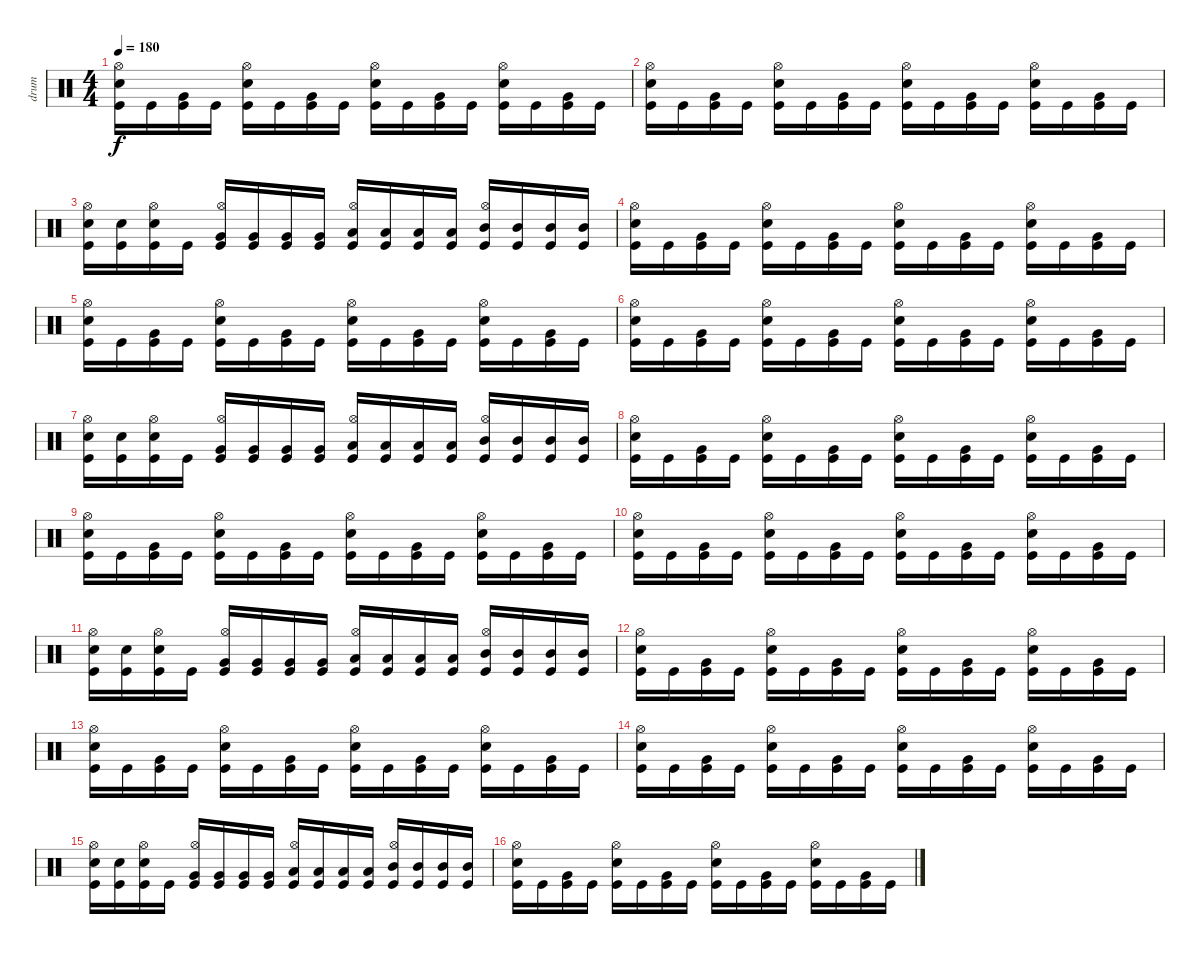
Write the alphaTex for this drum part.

\track ("drum" "drum") {instrument percussion}
\staff {score}
\articulation defaults
\ts (4 4)
\tempo 180
\clef neutral
\ks c
("Kick (hit)" "Snare (hit) 2" "Hi-Hat (open)").16{dy f} "Kick (hit)".16 ("Kick (hit)" "Very Low Tom (hit)").16 "Kick (hit)".16 ("Kick (hit)" "Snare (hit) 2" "Hi-Hat (open)").16 "Kick (hit)".16 ("Kick (hit)" "Very Low Tom (hit)").16 "Kick (hit)".16 ("Kick (hit)" "Snare (hit) 2" "Hi-Hat (open)").16 "Kick (hit)".16 ("Kick (hit)" "Very Low Tom (hit)").16 "Kick (hit)".16 ("Kick (hit)" "Snare (hit) 2" "Hi-Hat (open)").16 "Kick (hit)".16 ("Kick (hit)" "Very Low Tom (hit)").16 "Kick (hit)".16 |
("Kick (hit)" "Snare (hit) 2" "Hi-Hat (open)").16 "Kick (hit)".16 ("Kick (hit)" "Very Low Tom (hit)").16 "Kick (hit)".16 ("Kick (hit)" "Snare (hit) 2" "Hi-Hat (open)").16 "Kick (hit)".16 ("Kick (hit)" "Very Low Tom (hit)").16 "Kick (hit)".16 ("Kick (hit)" "Snare (hit) 2" "Hi-Hat (open)").16 "Kick (hit)".16 ("Kick (hit)" "Very Low Tom (hit)").16 "Kick (hit)".16 ("Kick (hit)" "Snare (hit) 2" "Hi-Hat (open)").16 "Kick (hit)".16 ("Kick (hit)" "Very Low Tom (hit)").16 "Kick (hit)".16 |
("Kick (hit)" "Snare (hit) 2" "Hi-Hat (open)").16 ("Kick (hit)" "Snare (hit) 2").16 ("Kick (hit)" "Snare (hit) 2" "Hi-Hat (open)").16 "Kick (hit)".16 ("Kick (hit)" "Very Low Tom (hit)" "Hi-Hat (open)").16 ("Kick (hit)" "Very Low Tom (hit)").16 ("Kick (hit)" "Very Low Tom (hit)").16 ("Kick (hit)" "Very Low Tom (hit)").16 ("Kick (hit)" "Low Tom (hit)" "Hi-Hat (open)").16 ("Kick (hit)" "Low Tom (hit)").16 ("Kick (hit)" "Low Tom (hit)").16 ("Kick (hit)" "Low Tom (hit)").16 ("Kick (hit)" "Mid Tom (hit)" "Hi-Hat (open)").16 ("Kick (hit)" "Mid Tom (hit)").16 ("Kick (hit)" "Mid Tom (hit)").16 ("Kick (hit)" "Mid Tom (hit)").16 |
("Kick (hit)" "Snare (hit) 2" "Hi-Hat (open)").16 "Kick (hit)".16 ("Kick (hit)" "Very Low Tom (hit)").16 "Kick (hit)".16 ("Kick (hit)" "Snare (hit) 2" "Hi-Hat (open)").16 "Kick (hit)".16 ("Kick (hit)" "Very Low Tom (hit)").16 "Kick (hit)".16 ("Kick (hit)" "Snare (hit) 2" "Hi-Hat (open)").16 "Kick (hit)".16 ("Kick (hit)" "Very Low Tom (hit)").16 "Kick (hit)".16 ("Kick (hit)" "Snare (hit) 2" "Hi-Hat (open)").16 "Kick (hit)".16 ("Kick (hit)" "Very Low Tom (hit)").16 "Kick (hit)".16 |
("Kick (hit)" "Snare (hit) 2" "Hi-Hat (open)").16 "Kick (hit)".16 ("Kick (hit)" "Very Low Tom (hit)").16 "Kick (hit)".16 ("Kick (hit)" "Snare (hit) 2" "Hi-Hat (open)").16 "Kick (hit)".16 ("Kick (hit)" "Very Low Tom (hit)").16 "Kick (hit)".16 ("Kick (hit)" "Snare (hit) 2" "Hi-Hat (open)").16 "Kick (hit)".16 ("Kick (hit)" "Very Low Tom (hit)").16 "Kick (hit)".16 ("Kick (hit)" "Snare (hit) 2" "Hi-Hat (open)").16 "Kick (hit)".16 ("Kick (hit)" "Very Low Tom (hit)").16 "Kick (hit)".16 |
("Kick (hit)" "Snare (hit) 2" "Hi-Hat (open)").16 "Kick (hit)".16 ("Kick (hit)" "Very Low Tom (hit)").16 "Kick (hit)".16 ("Kick (hit)" "Snare (hit) 2" "Hi-Hat (open)").16 "Kick (hit)".16 ("Kick (hit)" "Very Low Tom (hit)").16 "Kick (hit)".16 ("Kick (hit)" "Snare (hit) 2" "Hi-Hat (open)").16 "Kick (hit)".16 ("Kick (hit)" "Very Low Tom (hit)").16 "Kick (hit)".16 ("Kick (hit)" "Snare (hit) 2" "Hi-Hat (open)").16 "Kick (hit)".16 ("Kick (hit)" "Very Low Tom (hit)").16 "Kick (hit)".16 |
("Kick (hit)" "Snare (hit) 2" "Hi-Hat (open)").16 ("Kick (hit)" "Snare (hit) 2").16 ("Kick (hit)" "Snare (hit) 2" "Hi-Hat (open)").16 "Kick (hit)".16 ("Kick (hit)" "Very Low Tom (hit)" "Hi-Hat (open)").16 ("Kick (hit)" "Very Low Tom (hit)").16 ("Kick (hit)" "Very Low Tom (hit)").16 ("Kick (hit)" "Very Low Tom (hit)").16 ("Kick (hit)" "Low Tom (hit)" "Hi-Hat (open)").16 ("Kick (hit)" "Low Tom (hit)").16 ("Kick (hit)" "Low Tom (hit)").16 ("Kick (hit)" "Low Tom (hit)").16 ("Kick (hit)" "Mid Tom (hit)" "Hi-Hat (open)").16 ("Kick (hit)" "Mid Tom (hit)").16 ("Kick (hit)" "Mid Tom (hit)").16 ("Kick (hit)" "Mid Tom (hit)").16 |
("Kick (hit)" "Snare (hit) 2" "Hi-Hat (open)").16 "Kick (hit)".16 ("Kick (hit)" "Very Low Tom (hit)").16 "Kick (hit)".16 ("Kick (hit)" "Snare (hit) 2" "Hi-Hat (open)").16 "Kick (hit)".16 ("Kick (hit)" "Very Low Tom (hit)").16 "Kick (hit)".16 ("Kick (hit)" "Snare (hit) 2" "Hi-Hat (open)").16 "Kick (hit)".16 ("Kick (hit)" "Very Low Tom (hit)").16 "Kick (hit)".16 ("Kick (hit)" "Snare (hit) 2" "Hi-Hat (open)").16 "Kick (hit)".16 ("Kick (hit)" "Very Low Tom (hit)").16 "Kick (hit)".16 |
("Kick (hit)" "Snare (hit) 2" "Hi-Hat (open)").16 "Kick (hit)".16 ("Kick (hit)" "Very Low Tom (hit)").16 "Kick (hit)".16 ("Kick (hit)" "Snare (hit) 2" "Hi-Hat (open)").16 "Kick (hit)".16 ("Kick (hit)" "Very Low Tom (hit)").16 "Kick (hit)".16 ("Kick (hit)" "Snare (hit) 2" "Hi-Hat (open)").16 "Kick (hit)".16 ("Kick (hit)" "Very Low Tom (hit)").16 "Kick (hit)".16 ("Kick (hit)" "Snare (hit) 2" "Hi-Hat (open)").16 "Kick (hit)".16 ("Kick (hit)" "Very Low Tom (hit)").16 "Kick (hit)".16 |
("Kick (hit)" "Snare (hit) 2" "Hi-Hat (open)").16 "Kick (hit)".16 ("Kick (hit)" "Very Low Tom (hit)").16 "Kick (hit)".16 ("Kick (hit)" "Snare (hit) 2" "Hi-Hat (open)").16 "Kick (hit)".16 ("Kick (hit)" "Very Low Tom (hit)").16 "Kick (hit)".16 ("Kick (hit)" "Snare (hit) 2" "Hi-Hat (open)").16 "Kick (hit)".16 ("Kick (hit)" "Very Low Tom (hit)").16 "Kick (hit)".16 ("Kick (hit)" "Snare (hit) 2" "Hi-Hat (open)").16 "Kick (hit)".16 ("Kick (hit)" "Very Low Tom (hit)").16 "Kick (hit)".16 |
("Kick (hit)" "Snare (hit) 2" "Hi-Hat (open)").16 ("Kick (hit)" "Snare (hit) 2").16 ("Kick (hit)" "Snare (hit) 2" "Hi-Hat (open)").16 "Kick (hit)".16 ("Kick (hit)" "Very Low Tom (hit)" "Hi-Hat (open)").16 ("Kick (hit)" "Very Low Tom (hit)").16 ("Kick (hit)" "Very Low Tom (hit)").16 ("Kick (hit)" "Very Low Tom (hit)").16 ("Kick (hit)" "Low Tom (hit)" "Hi-Hat (open)").16 ("Kick (hit)" "Low Tom (hit)").16 ("Kick (hit)" "Low Tom (hit)").16 ("Kick (hit)" "Low Tom (hit)").16 ("Kick (hit)" "Mid Tom (hit)" "Hi-Hat (open)").16 ("Kick (hit)" "Mid Tom (hit)").16 ("Kick (hit)" "Mid Tom (hit)").16 ("Kick (hit)" "Mid Tom (hit)").16 |
("Kick (hit)" "Snare (hit) 2" "Hi-Hat (open)").16 "Kick (hit)".16 ("Kick (hit)" "Very Low Tom (hit)").16 "Kick (hit)".16 ("Kick (hit)" "Snare (hit) 2" "Hi-Hat (open)").16 "Kick (hit)".16 ("Kick (hit)" "Very Low Tom (hit)").16 "Kick (hit)".16 ("Kick (hit)" "Snare (hit) 2" "Hi-Hat (open)").16 "Kick (hit)".16 ("Kick (hit)" "Very Low Tom (hit)").16 "Kick (hit)".16 ("Kick (hit)" "Snare (hit) 2" "Hi-Hat (open)").16 "Kick (hit)".16 ("Kick (hit)" "Very Low Tom (hit)").16 "Kick (hit)".16 |
("Kick (hit)" "Snare (hit) 2" "Hi-Hat (open)").16 "Kick (hit)".16 ("Kick (hit)" "Very Low Tom (hit)").16 "Kick (hit)".16 ("Kick (hit)" "Snare (hit) 2" "Hi-Hat (open)").16 "Kick (hit)".16 ("Kick (hit)" "Very Low Tom (hit)").16 "Kick (hit)".16 ("Kick (hit)" "Snare (hit) 2" "Hi-Hat (open)").16 "Kick (hit)".16 ("Kick (hit)" "Very Low Tom (hit)").16 "Kick (hit)".16 ("Kick (hit)" "Snare (hit) 2" "Hi-Hat (open)").16 "Kick (hit)".16 ("Kick (hit)" "Very Low Tom (hit)").16 "Kick (hit)".16 |
("Kick (hit)" "Snare (hit) 2" "Hi-Hat (open)").16 "Kick (hit)".16 ("Kick (hit)" "Very Low Tom (hit)").16 "Kick (hit)".16 ("Kick (hit)" "Snare (hit) 2" "Hi-Hat (open)").16 "Kick (hit)".16 ("Kick (hit)" "Very Low Tom (hit)").16 "Kick (hit)".16 ("Kick (hit)" "Snare (hit) 2" "Hi-Hat (open)").16 "Kick (hit)".16 ("Kick (hit)" "Very Low Tom (hit)").16 "Kick (hit)".16 ("Kick (hit)" "Snare (hit) 2" "Hi-Hat (open)").16 "Kick (hit)".16 ("Kick (hit)" "Very Low Tom (hit)").16 "Kick (hit)".16 |
("Kick (hit)" "Snare (hit) 2" "Hi-Hat (open)").16 ("Kick (hit)" "Snare (hit) 2").16 ("Kick (hit)" "Snare (hit) 2" "Hi-Hat (open)").16 "Kick (hit)".16 ("Kick (hit)" "Very Low Tom (hit)" "Hi-Hat (open)").16 ("Kick (hit)" "Very Low Tom (hit)").16 ("Kick (hit)" "Very Low Tom (hit)").16 ("Kick (hit)" "Very Low Tom (hit)").16 ("Kick (hit)" "Low Tom (hit)" "Hi-Hat (open)").16 ("Kick (hit)" "Low Tom (hit)").16 ("Kick (hit)" "Low Tom (hit)").16 ("Kick (hit)" "Low Tom (hit)").16 ("Kick (hit)" "Mid Tom (hit)" "Hi-Hat (open)").16 ("Kick (hit)" "Mid Tom (hit)").16 ("Kick (hit)" "Mid Tom (hit)").16 ("Kick (hit)" "Mid Tom (hit)").16 |
("Kick (hit)" "Snare (hit) 2" "Hi-Hat (open)").16 "Kick (hit)".16 ("Kick (hit)" "Very Low Tom (hit)").16 "Kick (hit)".16 ("Kick (hit)" "Snare (hit) 2" "Hi-Hat (open)").16 "Kick (hit)".16 ("Kick (hit)" "Very Low Tom (hit)").16 "Kick (hit)".16 ("Kick (hit)" "Snare (hit) 2" "Hi-Hat (open)").16 "Kick (hit)".16 ("Kick (hit)" "Very Low Tom (hit)").16 "Kick (hit)".16 ("Kick (hit)" "Snare (hit) 2" "Hi-Hat (open)").16 "Kick (hit)".16 ("Kick (hit)" "Very Low Tom (hit)").16 "Kick (hit)".16
